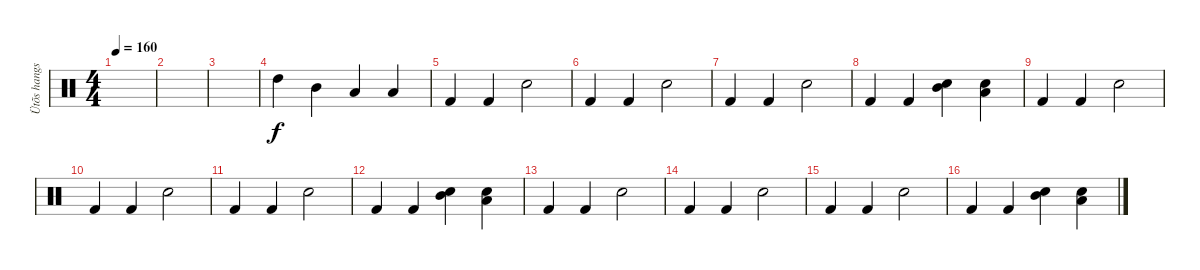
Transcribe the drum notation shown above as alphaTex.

\track ("Ütõs hangszer" "Ütõs hangs") {instrument percussion}
\staff {score}
\articulation defaults
\ts (4 4)
\tempo 160
\clef neutral
\ks c
|
|
|
"High Tom (hit)".4 "Mid Tom (hit)".4 "Low Tom (hit)".4 "Low Tom (hit)".4 |
"Kick (hit) 2".4 "Kick (hit) 2".4 "Electric Snare (hit)".2 |
"Kick (hit) 2".4 "Kick (hit) 2".4 "Electric Snare (hit)".2 |
"Kick (hit) 2".4 "Kick (hit) 2".4 "Electric Snare (hit)".2 |
"Kick (hit) 2".4 "Kick (hit) 2".4 ("Electric Snare (hit)" "Mid Tom (hit)").4 ("Electric Snare (hit)" "Low Tom (hit)").4 |
"Kick (hit) 2".4 "Kick (hit) 2".4 "Electric Snare (hit)".2 |
"Kick (hit) 2".4 "Kick (hit) 2".4 "Electric Snare (hit)".2 |
"Kick (hit) 2".4 "Kick (hit) 2".4 "Electric Snare (hit)".2 |
"Kick (hit) 2".4 "Kick (hit) 2".4 ("Electric Snare (hit)" "Mid Tom (hit)").4 ("Electric Snare (hit)" "Low Tom (hit)").4 |
"Kick (hit) 2".4 "Kick (hit) 2".4 "Electric Snare (hit)".2 |
"Kick (hit) 2".4 "Kick (hit) 2".4 "Electric Snare (hit)".2 |
"Kick (hit) 2".4 "Kick (hit) 2".4 "Electric Snare (hit)".2 |
"Kick (hit) 2".4 "Kick (hit) 2".4 ("Electric Snare (hit)" "Mid Tom (hit)").4 ("Electric Snare (hit)" "Low Tom (hit)").4
